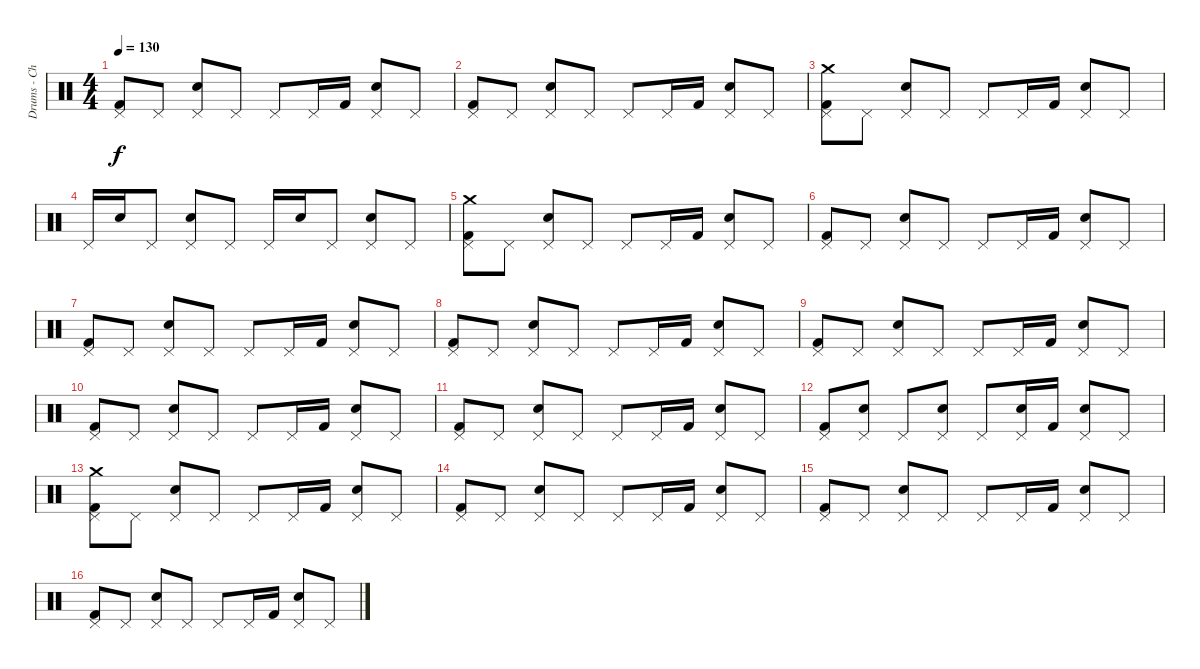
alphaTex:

\track ("Drums - Christoph Schneider" "Drums - Ch") {instrument percussion}
\staff {score}
\articulation defaults
\ts (4 4)
\tempo 130
\clef neutral
\ks c
("Pedal Hi-Hat (hit)" "Kick (hit) 2").8{dy f} "Pedal Hi-Hat (hit)".8 ("Pedal Hi-Hat (hit)" "Electric Snare (hit)").8 "Pedal Hi-Hat (hit)".8 "Pedal Hi-Hat (hit)".8 "Pedal Hi-Hat (hit)".16 "Kick (hit) 2".16 ("Pedal Hi-Hat (hit)" "Electric Snare (hit)").8 "Pedal Hi-Hat (hit)".8 |
("Pedal Hi-Hat (hit)" "Kick (hit) 2").8 "Pedal Hi-Hat (hit)".8 ("Pedal Hi-Hat (hit)" "Electric Snare (hit)").8 "Pedal Hi-Hat (hit)".8 "Pedal Hi-Hat (hit)".8 "Pedal Hi-Hat (hit)".16 "Kick (hit) 2".16 ("Pedal Hi-Hat (hit)" "Electric Snare (hit)").8 "Pedal Hi-Hat (hit)".8 |
("Crash medium (hit)" "Pedal Hi-Hat (hit)" "Kick (hit) 2").8 "Pedal Hi-Hat (hit)".8 ("Pedal Hi-Hat (hit)" "Electric Snare (hit)").8 "Pedal Hi-Hat (hit)".8 "Pedal Hi-Hat (hit)".8 "Pedal Hi-Hat (hit)".16 "Kick (hit) 2".16 ("Pedal Hi-Hat (hit)" "Electric Snare (hit)").8 "Pedal Hi-Hat (hit)".8 |
"Pedal Hi-Hat (hit)".16 "Electric Snare (hit)".16 "Pedal Hi-Hat (hit)".8 ("Pedal Hi-Hat (hit)" "Electric Snare (hit)").8 "Pedal Hi-Hat (hit)".8 "Pedal Hi-Hat (hit)".16 "Electric Snare (hit)".16 "Pedal Hi-Hat (hit)".8 ("Pedal Hi-Hat (hit)" "Electric Snare (hit)").8 "Pedal Hi-Hat (hit)".8 |
("Crash medium (hit)" "Pedal Hi-Hat (hit)" "Kick (hit) 2").8 "Pedal Hi-Hat (hit)".8 ("Pedal Hi-Hat (hit)" "Electric Snare (hit)").8 "Pedal Hi-Hat (hit)".8 "Pedal Hi-Hat (hit)".8 "Pedal Hi-Hat (hit)".16 "Kick (hit) 2".16 ("Pedal Hi-Hat (hit)" "Electric Snare (hit)").8 "Pedal Hi-Hat (hit)".8 |
("Pedal Hi-Hat (hit)" "Kick (hit) 2").8 "Pedal Hi-Hat (hit)".8 ("Pedal Hi-Hat (hit)" "Electric Snare (hit)").8 "Pedal Hi-Hat (hit)".8 "Pedal Hi-Hat (hit)".8 "Pedal Hi-Hat (hit)".16 "Kick (hit) 2".16 ("Pedal Hi-Hat (hit)" "Electric Snare (hit)").8 "Pedal Hi-Hat (hit)".8 |
("Pedal Hi-Hat (hit)" "Kick (hit) 2").8 "Pedal Hi-Hat (hit)".8 ("Pedal Hi-Hat (hit)" "Electric Snare (hit)").8 "Pedal Hi-Hat (hit)".8 "Pedal Hi-Hat (hit)".8 "Pedal Hi-Hat (hit)".16 "Kick (hit) 2".16 ("Pedal Hi-Hat (hit)" "Electric Snare (hit)").8 "Pedal Hi-Hat (hit)".8 |
("Pedal Hi-Hat (hit)" "Kick (hit) 2").8 "Pedal Hi-Hat (hit)".8 ("Pedal Hi-Hat (hit)" "Electric Snare (hit)").8 "Pedal Hi-Hat (hit)".8 "Pedal Hi-Hat (hit)".8 "Pedal Hi-Hat (hit)".16 "Kick (hit) 2".16 ("Pedal Hi-Hat (hit)" "Electric Snare (hit)").8 "Pedal Hi-Hat (hit)".8 |
("Pedal Hi-Hat (hit)" "Kick (hit) 2").8 "Pedal Hi-Hat (hit)".8 ("Pedal Hi-Hat (hit)" "Electric Snare (hit)").8 "Pedal Hi-Hat (hit)".8 "Pedal Hi-Hat (hit)".8 "Pedal Hi-Hat (hit)".16 "Kick (hit) 2".16 ("Pedal Hi-Hat (hit)" "Electric Snare (hit)").8 "Pedal Hi-Hat (hit)".8 |
("Pedal Hi-Hat (hit)" "Kick (hit) 2").8 "Pedal Hi-Hat (hit)".8 ("Pedal Hi-Hat (hit)" "Electric Snare (hit)").8 "Pedal Hi-Hat (hit)".8 "Pedal Hi-Hat (hit)".8 "Pedal Hi-Hat (hit)".16 "Kick (hit) 2".16 ("Pedal Hi-Hat (hit)" "Electric Snare (hit)").8 "Pedal Hi-Hat (hit)".8 |
("Pedal Hi-Hat (hit)" "Kick (hit) 2").8 "Pedal Hi-Hat (hit)".8 ("Pedal Hi-Hat (hit)" "Electric Snare (hit)").8 "Pedal Hi-Hat (hit)".8 "Pedal Hi-Hat (hit)".8 "Pedal Hi-Hat (hit)".16 "Kick (hit) 2".16 ("Pedal Hi-Hat (hit)" "Electric Snare (hit)").8 "Pedal Hi-Hat (hit)".8 |
("Pedal Hi-Hat (hit)" "Kick (hit) 2").8 ("Pedal Hi-Hat (hit)" "Electric Snare (hit)").8 "Pedal Hi-Hat (hit)".8 ("Pedal Hi-Hat (hit)" "Electric Snare (hit)").8 "Pedal Hi-Hat (hit)".8 ("Pedal Hi-Hat (hit)" "Electric Snare (hit)").16 "Kick (hit) 2".16 ("Pedal Hi-Hat (hit)" "Electric Snare (hit)").8 "Pedal Hi-Hat (hit)".8 |
("Crash medium (hit)" "Pedal Hi-Hat (hit)" "Kick (hit) 2").8 "Pedal Hi-Hat (hit)".8 ("Pedal Hi-Hat (hit)" "Electric Snare (hit)").8 "Pedal Hi-Hat (hit)".8 "Pedal Hi-Hat (hit)".8 "Pedal Hi-Hat (hit)".16 "Kick (hit) 2".16 ("Pedal Hi-Hat (hit)" "Electric Snare (hit)").8 "Pedal Hi-Hat (hit)".8 |
("Pedal Hi-Hat (hit)" "Kick (hit) 2").8 "Pedal Hi-Hat (hit)".8 ("Pedal Hi-Hat (hit)" "Electric Snare (hit)").8 "Pedal Hi-Hat (hit)".8 "Pedal Hi-Hat (hit)".8 "Pedal Hi-Hat (hit)".16 "Kick (hit) 2".16 ("Pedal Hi-Hat (hit)" "Electric Snare (hit)").8 "Pedal Hi-Hat (hit)".8 |
("Pedal Hi-Hat (hit)" "Kick (hit) 2").8 "Pedal Hi-Hat (hit)".8 ("Pedal Hi-Hat (hit)" "Electric Snare (hit)").8 "Pedal Hi-Hat (hit)".8 "Pedal Hi-Hat (hit)".8 "Pedal Hi-Hat (hit)".16 "Kick (hit) 2".16 ("Pedal Hi-Hat (hit)" "Electric Snare (hit)").8 "Pedal Hi-Hat (hit)".8 |
("Pedal Hi-Hat (hit)" "Kick (hit) 2").8 "Pedal Hi-Hat (hit)".8 ("Pedal Hi-Hat (hit)" "Electric Snare (hit)").8 "Pedal Hi-Hat (hit)".8 "Pedal Hi-Hat (hit)".8 "Pedal Hi-Hat (hit)".16 "Kick (hit) 2".16 ("Pedal Hi-Hat (hit)" "Electric Snare (hit)").8 "Pedal Hi-Hat (hit)".8
